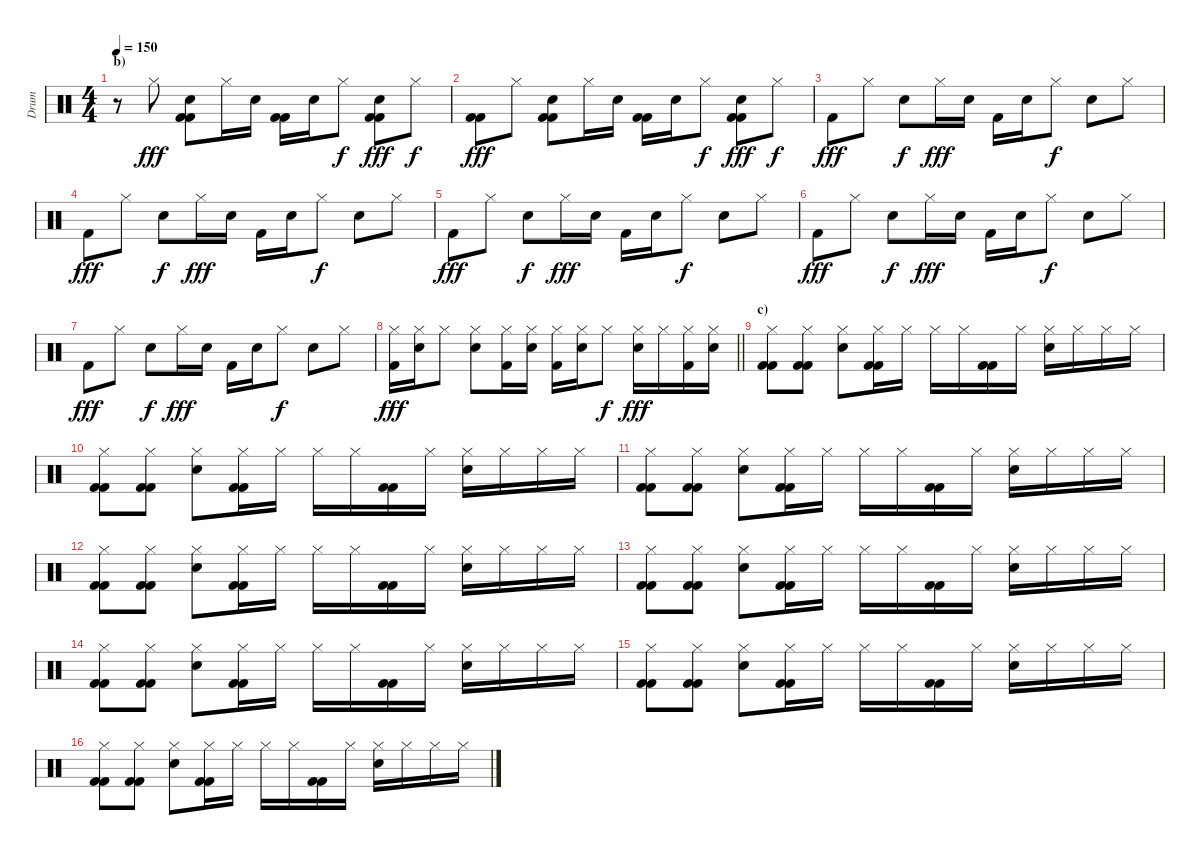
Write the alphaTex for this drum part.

\track ("Drum" "Drum") {instrument percussion}
\staff {score}
\articulation defaults
\ts (4 4)
\section ("" "b)")
\tempo 150
\clef neutral
\ks c
r.8{dy f} "Hi-Hat (closed)".8{dy fff} ("Kick (hit) 2" "Electric Snare (hit)" "Kick (hit) 2").8 "Hi-Hat (closed)".16 "Electric Snare (hit)".16 ("Kick (hit) 2" "Kick (hit) 2").16 "Electric Snare (hit)".16 "Hi-Hat (closed)".8{dy f} ("Kick (hit) 2" "Electric Snare (hit)" "Kick (hit) 2").8{dy fff} "Hi-Hat (closed)".8{dy f} |
("Kick (hit) 2" "Kick (hit) 2").8{dy fff} "Hi-Hat (closed)".8 ("Kick (hit) 2" "Electric Snare (hit)" "Kick (hit) 2").8 "Hi-Hat (closed)".16 "Electric Snare (hit)".16 ("Kick (hit) 2" "Kick (hit) 2").16 "Electric Snare (hit)".16 "Hi-Hat (closed)".8{dy f} ("Kick (hit) 2" "Electric Snare (hit)" "Kick (hit) 2").8{dy fff} "Hi-Hat (closed)".8{dy f} |
"Kick (hit) 2".8{dy fff} "Hi-Hat (closed)".8 "Electric Snare (hit)".8{dy f} "Hi-Hat (closed)".16{dy fff} "Electric Snare (hit)".16 "Kick (hit) 2".16 "Electric Snare (hit)".16 "Hi-Hat (closed)".8{dy f} "Electric Snare (hit)".8 "Hi-Hat (closed)".8 |
"Kick (hit) 2".8{dy fff} "Hi-Hat (closed)".8 "Electric Snare (hit)".8{dy f} "Hi-Hat (closed)".16{dy fff} "Electric Snare (hit)".16 "Kick (hit) 2".16 "Electric Snare (hit)".16 "Hi-Hat (closed)".8{dy f} "Electric Snare (hit)".8 "Hi-Hat (closed)".8 |
"Kick (hit) 2".8{dy fff} "Hi-Hat (closed)".8 "Electric Snare (hit)".8{dy f} "Hi-Hat (closed)".16{dy fff} "Electric Snare (hit)".16 "Kick (hit) 2".16 "Electric Snare (hit)".16 "Hi-Hat (closed)".8{dy f} "Electric Snare (hit)".8 "Hi-Hat (closed)".8 |
"Kick (hit) 2".8{dy fff} "Hi-Hat (closed)".8 "Electric Snare (hit)".8{dy f} "Hi-Hat (closed)".16{dy fff} "Electric Snare (hit)".16 "Kick (hit) 2".16 "Electric Snare (hit)".16 "Hi-Hat (closed)".8{dy f} "Electric Snare (hit)".8 "Hi-Hat (closed)".8 |
"Kick (hit) 2".8{dy fff} "Hi-Hat (closed)".8 "Electric Snare (hit)".8{dy f} "Hi-Hat (closed)".16{dy fff} "Electric Snare (hit)".16 "Kick (hit) 2".16 "Electric Snare (hit)".16 "Hi-Hat (closed)".8{dy f} "Electric Snare (hit)".8 "Hi-Hat (closed)".8 |
\barLineRight lightlight
("Hi-Hat (closed)" "Kick (hit) 2").16{dy fff} ("Hi-Hat (closed)" "Electric Snare (hit)").16 "Hi-Hat (closed)".8 ("Hi-Hat (closed)" "Electric Snare (hit)").8 ("Hi-Hat (closed)" "Kick (hit) 2").16 ("Hi-Hat (closed)" "Electric Snare (hit)").16 ("Hi-Hat (closed)" "Kick (hit) 2").16 ("Hi-Hat (closed)" "Electric Snare (hit)").16 "Hi-Hat (closed)".8{dy f} ("Hi-Hat (closed)" "Electric Snare (hit)").16{dy fff} "Hi-Hat (closed)".16 ("Hi-Hat (closed)" "Kick (hit) 2").16 ("Hi-Hat (closed)" "Electric Snare (hit)").16 |
\section ("" "c)")
("Hi-Hat (closed)" "Kick (hit) 2" "Kick (hit) 2").8 ("Hi-Hat (closed)" "Kick (hit) 2" "Kick (hit) 2").8 ("Hi-Hat (closed)" "Electric Snare (hit)").8 ("Hi-Hat (closed)" "Kick (hit) 2" "Kick (hit) 2").16 "Hi-Hat (closed)".16 "Hi-Hat (closed)".16 "Hi-Hat (closed)".16 ("Kick (hit) 2" "Kick (hit) 2").16 "Hi-Hat (closed)".16 ("Hi-Hat (closed)" "Electric Snare (hit)").16 "Hi-Hat (closed)".16 "Hi-Hat (closed)".16 "Hi-Hat (closed)".16 |
("Hi-Hat (closed)" "Kick (hit) 2" "Kick (hit) 2").8 ("Hi-Hat (closed)" "Kick (hit) 2" "Kick (hit) 2").8 ("Hi-Hat (closed)" "Electric Snare (hit)").8 ("Hi-Hat (closed)" "Kick (hit) 2" "Kick (hit) 2").16 "Hi-Hat (closed)".16 "Hi-Hat (closed)".16 "Hi-Hat (closed)".16 ("Kick (hit) 2" "Kick (hit) 2").16 "Hi-Hat (closed)".16 ("Hi-Hat (closed)" "Electric Snare (hit)").16 "Hi-Hat (closed)".16 "Hi-Hat (closed)".16 "Hi-Hat (closed)".16 |
("Hi-Hat (closed)" "Kick (hit) 2" "Kick (hit) 2").8 ("Hi-Hat (closed)" "Kick (hit) 2" "Kick (hit) 2").8 ("Hi-Hat (closed)" "Electric Snare (hit)").8 ("Hi-Hat (closed)" "Kick (hit) 2" "Kick (hit) 2").16 "Hi-Hat (closed)".16 "Hi-Hat (closed)".16 "Hi-Hat (closed)".16 ("Kick (hit) 2" "Kick (hit) 2").16 "Hi-Hat (closed)".16 ("Hi-Hat (closed)" "Electric Snare (hit)").16 "Hi-Hat (closed)".16 "Hi-Hat (closed)".16 "Hi-Hat (closed)".16 |
("Hi-Hat (closed)" "Kick (hit) 2" "Kick (hit) 2").8 ("Hi-Hat (closed)" "Kick (hit) 2" "Kick (hit) 2").8 ("Hi-Hat (closed)" "Electric Snare (hit)").8 ("Hi-Hat (closed)" "Kick (hit) 2" "Kick (hit) 2").16 "Hi-Hat (closed)".16 "Hi-Hat (closed)".16 "Hi-Hat (closed)".16 ("Kick (hit) 2" "Kick (hit) 2").16 "Hi-Hat (closed)".16 ("Hi-Hat (closed)" "Electric Snare (hit)").16 "Hi-Hat (closed)".16 "Hi-Hat (closed)".16 "Hi-Hat (closed)".16 |
("Hi-Hat (closed)" "Kick (hit) 2" "Kick (hit) 2").8 ("Hi-Hat (closed)" "Kick (hit) 2" "Kick (hit) 2").8 ("Hi-Hat (closed)" "Electric Snare (hit)").8 ("Hi-Hat (closed)" "Kick (hit) 2" "Kick (hit) 2").16 "Hi-Hat (closed)".16 "Hi-Hat (closed)".16 "Hi-Hat (closed)".16 ("Kick (hit) 2" "Kick (hit) 2").16 "Hi-Hat (closed)".16 ("Hi-Hat (closed)" "Electric Snare (hit)").16 "Hi-Hat (closed)".16 "Hi-Hat (closed)".16 "Hi-Hat (closed)".16 |
("Hi-Hat (closed)" "Kick (hit) 2" "Kick (hit) 2").8 ("Hi-Hat (closed)" "Kick (hit) 2" "Kick (hit) 2").8 ("Hi-Hat (closed)" "Electric Snare (hit)").8 ("Hi-Hat (closed)" "Kick (hit) 2" "Kick (hit) 2").16 "Hi-Hat (closed)".16 "Hi-Hat (closed)".16 "Hi-Hat (closed)".16 ("Kick (hit) 2" "Kick (hit) 2").16 "Hi-Hat (closed)".16 ("Hi-Hat (closed)" "Electric Snare (hit)").16 "Hi-Hat (closed)".16 "Hi-Hat (closed)".16 "Hi-Hat (closed)".16 |
("Hi-Hat (closed)" "Kick (hit) 2" "Kick (hit) 2").8 ("Hi-Hat (closed)" "Kick (hit) 2" "Kick (hit) 2").8 ("Hi-Hat (closed)" "Electric Snare (hit)").8 ("Hi-Hat (closed)" "Kick (hit) 2" "Kick (hit) 2").16 "Hi-Hat (closed)".16 "Hi-Hat (closed)".16 "Hi-Hat (closed)".16 ("Kick (hit) 2" "Kick (hit) 2").16 "Hi-Hat (closed)".16 ("Hi-Hat (closed)" "Electric Snare (hit)").16 "Hi-Hat (closed)".16 "Hi-Hat (closed)".16 "Hi-Hat (closed)".16 |
("Hi-Hat (closed)" "Kick (hit) 2" "Kick (hit) 2").8 ("Hi-Hat (closed)" "Kick (hit) 2" "Kick (hit) 2").8 ("Hi-Hat (closed)" "Electric Snare (hit)").8 ("Hi-Hat (closed)" "Kick (hit) 2" "Kick (hit) 2").16 "Hi-Hat (closed)".16 "Hi-Hat (closed)".16 "Hi-Hat (closed)".16 ("Kick (hit) 2" "Kick (hit) 2").16 "Hi-Hat (closed)".16 ("Hi-Hat (closed)" "Electric Snare (hit)").16 "Hi-Hat (closed)".16 "Hi-Hat (closed)".16 "Hi-Hat (closed)".16
